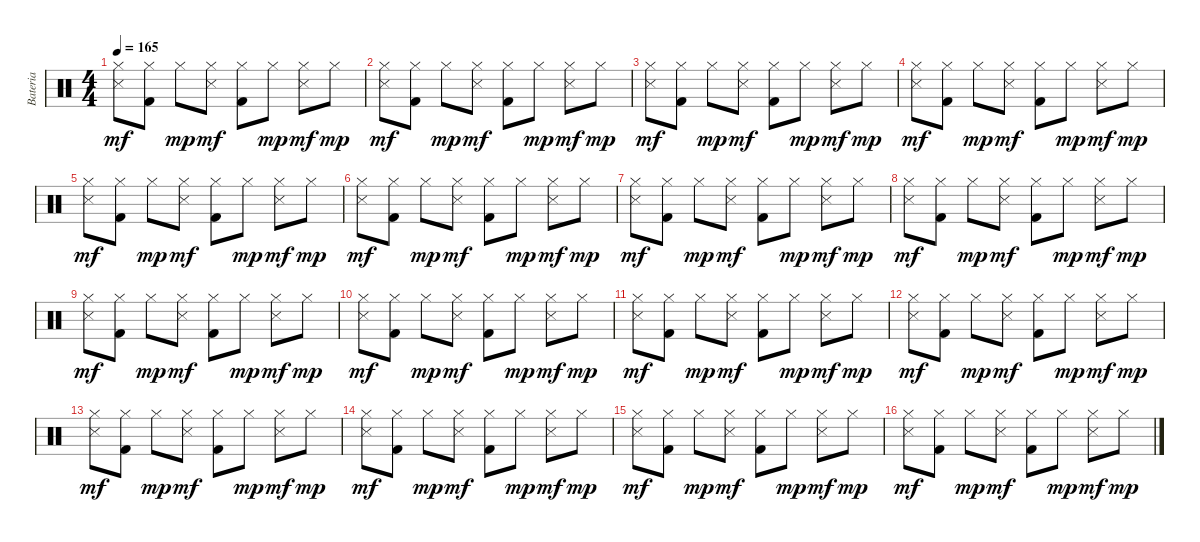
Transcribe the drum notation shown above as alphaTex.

\track ("Bateria" "Bateria") {instrument percussion}
\staff {score}
\articulation defaults
\ts (4 4)
\tempo 165
\clef neutral
\ks c
("Hi-Hat (closed)" "Snare (side stick) 3").8{dy mf} ("Hi-Hat (closed)" "Kick (hit) 2").8 "Hi-Hat (closed)".8{dy mp} ("Hi-Hat (closed)" "Snare (side stick) 3").8{dy mf} ("Hi-Hat (closed)" "Kick (hit) 2").8 "Hi-Hat (closed)".8{dy mp} ("Hi-Hat (closed)" "Snare (side stick) 3").8{dy mf} "Hi-Hat (closed)".8{dy mp} |
("Hi-Hat (closed)" "Snare (side stick) 3").8{dy mf} ("Hi-Hat (closed)" "Kick (hit) 2").8 "Hi-Hat (closed)".8{dy mp} ("Hi-Hat (closed)" "Snare (side stick) 3").8{dy mf} ("Hi-Hat (closed)" "Kick (hit) 2").8 "Hi-Hat (closed)".8{dy mp} ("Hi-Hat (closed)" "Snare (side stick) 3").8{dy mf} "Hi-Hat (closed)".8{dy mp} |
("Hi-Hat (closed)" "Snare (side stick) 3").8{dy mf} ("Hi-Hat (closed)" "Kick (hit) 2").8 "Hi-Hat (closed)".8{dy mp} ("Hi-Hat (closed)" "Snare (side stick) 3").8{dy mf} ("Hi-Hat (closed)" "Kick (hit) 2").8 "Hi-Hat (closed)".8{dy mp} ("Hi-Hat (closed)" "Snare (side stick) 3").8{dy mf} "Hi-Hat (closed)".8{dy mp} |
("Hi-Hat (closed)" "Snare (side stick) 3").8{dy mf} ("Hi-Hat (closed)" "Kick (hit) 2").8 "Hi-Hat (closed)".8{dy mp} ("Hi-Hat (closed)" "Snare (side stick) 3").8{dy mf} ("Hi-Hat (closed)" "Kick (hit) 2").8 "Hi-Hat (closed)".8{dy mp} ("Hi-Hat (closed)" "Snare (side stick) 3").8{dy mf} "Hi-Hat (closed)".8{dy mp} |
("Hi-Hat (closed)" "Snare (side stick) 3").8{dy mf} ("Hi-Hat (closed)" "Kick (hit) 2").8 "Hi-Hat (closed)".8{dy mp} ("Hi-Hat (closed)" "Snare (side stick) 3").8{dy mf} ("Hi-Hat (closed)" "Kick (hit) 2").8 "Hi-Hat (closed)".8{dy mp} ("Hi-Hat (closed)" "Snare (side stick) 3").8{dy mf} "Hi-Hat (closed)".8{dy mp} |
("Hi-Hat (closed)" "Snare (side stick) 3").8{dy mf} ("Hi-Hat (closed)" "Kick (hit) 2").8 "Hi-Hat (closed)".8{dy mp} ("Hi-Hat (closed)" "Snare (side stick) 3").8{dy mf} ("Hi-Hat (closed)" "Kick (hit) 2").8 "Hi-Hat (closed)".8{dy mp} ("Hi-Hat (closed)" "Snare (side stick) 3").8{dy mf} "Hi-Hat (closed)".8{dy mp} |
("Hi-Hat (closed)" "Snare (side stick) 3").8{dy mf} ("Hi-Hat (closed)" "Kick (hit) 2").8 "Hi-Hat (closed)".8{dy mp} ("Hi-Hat (closed)" "Snare (side stick) 3").8{dy mf} ("Hi-Hat (closed)" "Kick (hit) 2").8 "Hi-Hat (closed)".8{dy mp} ("Hi-Hat (closed)" "Snare (side stick) 3").8{dy mf} "Hi-Hat (closed)".8{dy mp} |
("Hi-Hat (closed)" "Snare (side stick) 3").8{dy mf} ("Hi-Hat (closed)" "Kick (hit) 2").8 "Hi-Hat (closed)".8{dy mp} ("Hi-Hat (closed)" "Snare (side stick) 3").8{dy mf} ("Hi-Hat (closed)" "Kick (hit) 2").8 "Hi-Hat (closed)".8{dy mp} ("Hi-Hat (closed)" "Snare (side stick) 3").8{dy mf} "Hi-Hat (closed)".8{dy mp} |
("Hi-Hat (closed)" "Snare (side stick) 3").8{dy mf} ("Hi-Hat (closed)" "Kick (hit) 2").8 "Hi-Hat (closed)".8{dy mp} ("Hi-Hat (closed)" "Snare (side stick) 3").8{dy mf} ("Hi-Hat (closed)" "Kick (hit) 2").8 "Hi-Hat (closed)".8{dy mp} ("Hi-Hat (closed)" "Snare (side stick) 3").8{dy mf} "Hi-Hat (closed)".8{dy mp} |
("Hi-Hat (closed)" "Snare (side stick) 3").8{dy mf} ("Hi-Hat (closed)" "Kick (hit) 2").8 "Hi-Hat (closed)".8{dy mp} ("Hi-Hat (closed)" "Snare (side stick) 3").8{dy mf} ("Hi-Hat (closed)" "Kick (hit) 2").8 "Hi-Hat (closed)".8{dy mp} ("Hi-Hat (closed)" "Snare (side stick) 3").8{dy mf} "Hi-Hat (closed)".8{dy mp} |
("Hi-Hat (closed)" "Snare (side stick) 3").8{dy mf} ("Hi-Hat (closed)" "Kick (hit) 2").8 "Hi-Hat (closed)".8{dy mp} ("Hi-Hat (closed)" "Snare (side stick) 3").8{dy mf} ("Hi-Hat (closed)" "Kick (hit) 2").8 "Hi-Hat (closed)".8{dy mp} ("Hi-Hat (closed)" "Snare (side stick) 3").8{dy mf} "Hi-Hat (closed)".8{dy mp} |
("Hi-Hat (closed)" "Snare (side stick) 3").8{dy mf} ("Hi-Hat (closed)" "Kick (hit) 2").8 "Hi-Hat (closed)".8{dy mp} ("Hi-Hat (closed)" "Snare (side stick) 3").8{dy mf} ("Hi-Hat (closed)" "Kick (hit) 2").8 "Hi-Hat (closed)".8{dy mp} ("Hi-Hat (closed)" "Snare (side stick) 3").8{dy mf} "Hi-Hat (closed)".8{dy mp} |
("Hi-Hat (closed)" "Snare (side stick) 3").8{dy mf} ("Hi-Hat (closed)" "Kick (hit) 2").8 "Hi-Hat (closed)".8{dy mp} ("Hi-Hat (closed)" "Snare (side stick) 3").8{dy mf} ("Hi-Hat (closed)" "Kick (hit) 2").8 "Hi-Hat (closed)".8{dy mp} ("Hi-Hat (closed)" "Snare (side stick) 3").8{dy mf} "Hi-Hat (closed)".8{dy mp} |
("Hi-Hat (closed)" "Snare (side stick) 3").8{dy mf} ("Hi-Hat (closed)" "Kick (hit) 2").8 "Hi-Hat (closed)".8{dy mp} ("Hi-Hat (closed)" "Snare (side stick) 3").8{dy mf} ("Hi-Hat (closed)" "Kick (hit) 2").8 "Hi-Hat (closed)".8{dy mp} ("Hi-Hat (closed)" "Snare (side stick) 3").8{dy mf} "Hi-Hat (closed)".8{dy mp} |
("Hi-Hat (closed)" "Snare (side stick) 3").8{dy mf} ("Hi-Hat (closed)" "Kick (hit) 2").8 "Hi-Hat (closed)".8{dy mp} ("Hi-Hat (closed)" "Snare (side stick) 3").8{dy mf} ("Hi-Hat (closed)" "Kick (hit) 2").8 "Hi-Hat (closed)".8{dy mp} ("Hi-Hat (closed)" "Snare (side stick) 3").8{dy mf} "Hi-Hat (closed)".8{dy mp} |
("Hi-Hat (closed)" "Snare (side stick) 3").8{dy mf} ("Hi-Hat (closed)" "Kick (hit) 2").8 "Hi-Hat (closed)".8{dy mp} ("Hi-Hat (closed)" "Snare (side stick) 3").8{dy mf} ("Hi-Hat (closed)" "Kick (hit) 2").8 "Hi-Hat (closed)".8{dy mp} ("Hi-Hat (closed)" "Snare (side stick) 3").8{dy mf} "Hi-Hat (closed)".8{dy mp}
